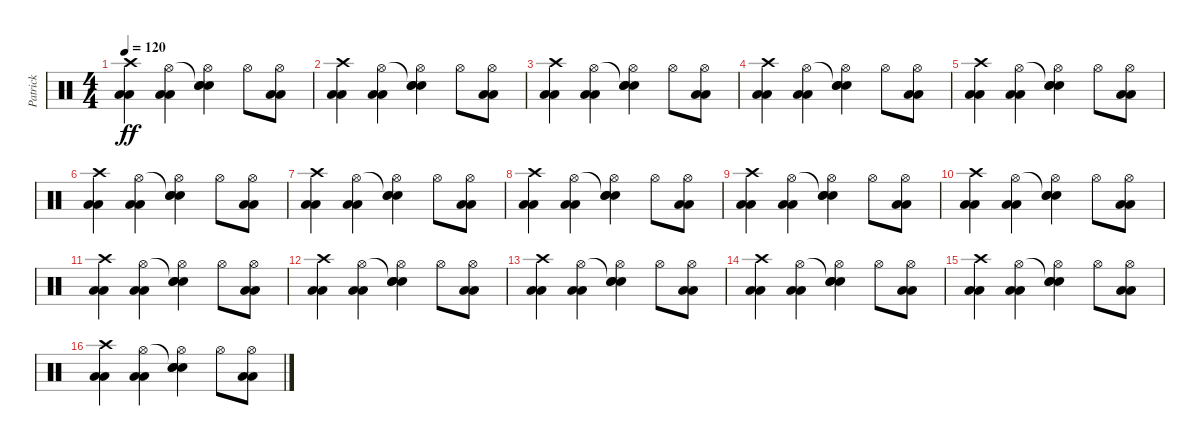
\track ("Patrick" "Patrick") {instrument percussion}
\staff {score}
\articulation defaults
\ts (4 4)
\tempo 120
\clef neutral
\ks c
("Crash high (hit)" "Low Floor Tom (hit)" "Low Floor Tom (hit)").4{dy ff} ("Hi-Hat (open)" "Low Floor Tom (hit)" "Low Floor Tom (hit)").4 ("Snare (hit)"{t} "Hi-Hat (open)" "Electric Snare (hit)" "Electric Snare (hit)").4 "Hi-Hat (open)".8 ("Hi-Hat (open)" "Low Floor Tom (hit)" "Low Floor Tom (hit)").8 |
("Crash high (hit)" "Low Floor Tom (hit)" "Low Floor Tom (hit)").4 ("Hi-Hat (open)" "Low Floor Tom (hit)" "Low Floor Tom (hit)").4 ("Snare (hit)"{t} "Hi-Hat (open)" "Electric Snare (hit)" "Electric Snare (hit)").4 "Hi-Hat (open)".8 ("Hi-Hat (open)" "Low Floor Tom (hit)" "Low Floor Tom (hit)").8 |
("Crash high (hit)" "Low Floor Tom (hit)" "Low Floor Tom (hit)").4 ("Hi-Hat (open)" "Low Floor Tom (hit)" "Low Floor Tom (hit)").4 ("Snare (hit)"{t} "Hi-Hat (open)" "Electric Snare (hit)" "Electric Snare (hit)").4 "Hi-Hat (open)".8 ("Hi-Hat (open)" "Low Floor Tom (hit)" "Low Floor Tom (hit)").8 |
("Crash high (hit)" "Low Floor Tom (hit)" "Low Floor Tom (hit)").4 ("Hi-Hat (open)" "Low Floor Tom (hit)" "Low Floor Tom (hit)").4 ("Snare (hit)"{t} "Hi-Hat (open)" "Electric Snare (hit)" "Electric Snare (hit)").4 "Hi-Hat (open)".8 ("Hi-Hat (open)" "Low Floor Tom (hit)" "Low Floor Tom (hit)").8 |
("Crash high (hit)" "Low Floor Tom (hit)" "Low Floor Tom (hit)").4 ("Hi-Hat (open)" "Low Floor Tom (hit)" "Low Floor Tom (hit)").4 ("Snare (hit)"{t} "Hi-Hat (open)" "Electric Snare (hit)" "Electric Snare (hit)").4 "Hi-Hat (open)".8 ("Hi-Hat (open)" "Low Floor Tom (hit)" "Low Floor Tom (hit)").8 |
("Crash high (hit)" "Low Floor Tom (hit)" "Low Floor Tom (hit)").4 ("Hi-Hat (open)" "Low Floor Tom (hit)" "Low Floor Tom (hit)").4 ("Snare (hit)"{t} "Hi-Hat (open)" "Electric Snare (hit)" "Electric Snare (hit)").4 "Hi-Hat (open)".8 ("Hi-Hat (open)" "Low Floor Tom (hit)" "Low Floor Tom (hit)").8 |
("Crash high (hit)" "Low Floor Tom (hit)" "Low Floor Tom (hit)").4 ("Hi-Hat (open)" "Low Floor Tom (hit)" "Low Floor Tom (hit)").4 ("Snare (hit)"{t} "Hi-Hat (open)" "Electric Snare (hit)" "Electric Snare (hit)").4 "Hi-Hat (open)".8 ("Hi-Hat (open)" "Low Floor Tom (hit)" "Low Floor Tom (hit)").8 |
("Crash high (hit)" "Low Floor Tom (hit)" "Low Floor Tom (hit)").4 ("Hi-Hat (open)" "Low Floor Tom (hit)" "Low Floor Tom (hit)").4 ("Snare (hit)"{t} "Hi-Hat (open)" "Electric Snare (hit)" "Electric Snare (hit)").4 "Hi-Hat (open)".8 ("Hi-Hat (open)" "Low Floor Tom (hit)" "Low Floor Tom (hit)").8 |
("Crash high (hit)" "Low Floor Tom (hit)" "Low Floor Tom (hit)").4 ("Hi-Hat (open)" "Low Floor Tom (hit)" "Low Floor Tom (hit)").4 ("Snare (hit)"{t} "Hi-Hat (open)" "Electric Snare (hit)" "Electric Snare (hit)").4 "Hi-Hat (open)".8 ("Hi-Hat (open)" "Low Floor Tom (hit)" "Low Floor Tom (hit)").8 |
("Crash high (hit)" "Low Floor Tom (hit)" "Low Floor Tom (hit)").4 ("Hi-Hat (open)" "Low Floor Tom (hit)" "Low Floor Tom (hit)").4 ("Snare (hit)"{t} "Hi-Hat (open)" "Electric Snare (hit)" "Electric Snare (hit)").4 "Hi-Hat (open)".8 ("Hi-Hat (open)" "Low Floor Tom (hit)" "Low Floor Tom (hit)").8 |
("Crash high (hit)" "Low Floor Tom (hit)" "Low Floor Tom (hit)").4 ("Hi-Hat (open)" "Low Floor Tom (hit)" "Low Floor Tom (hit)").4 ("Snare (hit)"{t} "Hi-Hat (open)" "Electric Snare (hit)" "Electric Snare (hit)").4 "Hi-Hat (open)".8 ("Hi-Hat (open)" "Low Floor Tom (hit)" "Low Floor Tom (hit)").8 |
("Crash high (hit)" "Low Floor Tom (hit)" "Low Floor Tom (hit)").4 ("Hi-Hat (open)" "Low Floor Tom (hit)" "Low Floor Tom (hit)").4 ("Snare (hit)"{t} "Hi-Hat (open)" "Electric Snare (hit)" "Electric Snare (hit)").4 "Hi-Hat (open)".8 ("Hi-Hat (open)" "Low Floor Tom (hit)" "Low Floor Tom (hit)").8 |
("Crash high (hit)" "Low Floor Tom (hit)" "Low Floor Tom (hit)").4 ("Hi-Hat (open)" "Low Floor Tom (hit)" "Low Floor Tom (hit)").4 ("Snare (hit)"{t} "Hi-Hat (open)" "Electric Snare (hit)" "Electric Snare (hit)").4 "Hi-Hat (open)".8 ("Hi-Hat (open)" "Low Floor Tom (hit)" "Low Floor Tom (hit)").8 |
("Crash high (hit)" "Low Floor Tom (hit)" "Low Floor Tom (hit)").4 ("Hi-Hat (open)" "Low Floor Tom (hit)" "Low Floor Tom (hit)").4 ("Snare (hit)"{t} "Hi-Hat (open)" "Electric Snare (hit)" "Electric Snare (hit)").4 "Hi-Hat (open)".8 ("Hi-Hat (open)" "Low Floor Tom (hit)" "Low Floor Tom (hit)").8 |
("Crash high (hit)" "Low Floor Tom (hit)" "Low Floor Tom (hit)").4 ("Hi-Hat (open)" "Low Floor Tom (hit)" "Low Floor Tom (hit)").4 ("Snare (hit)"{t} "Hi-Hat (open)" "Electric Snare (hit)" "Electric Snare (hit)").4 "Hi-Hat (open)".8 ("Hi-Hat (open)" "Low Floor Tom (hit)" "Low Floor Tom (hit)").8 |
("Crash high (hit)" "Low Floor Tom (hit)" "Low Floor Tom (hit)").4 ("Hi-Hat (open)" "Low Floor Tom (hit)" "Low Floor Tom (hit)").4 ("Snare (hit)"{t} "Hi-Hat (open)" "Electric Snare (hit)" "Electric Snare (hit)").4 "Hi-Hat (open)".8 ("Hi-Hat (open)" "Low Floor Tom (hit)" "Low Floor Tom (hit)").8
